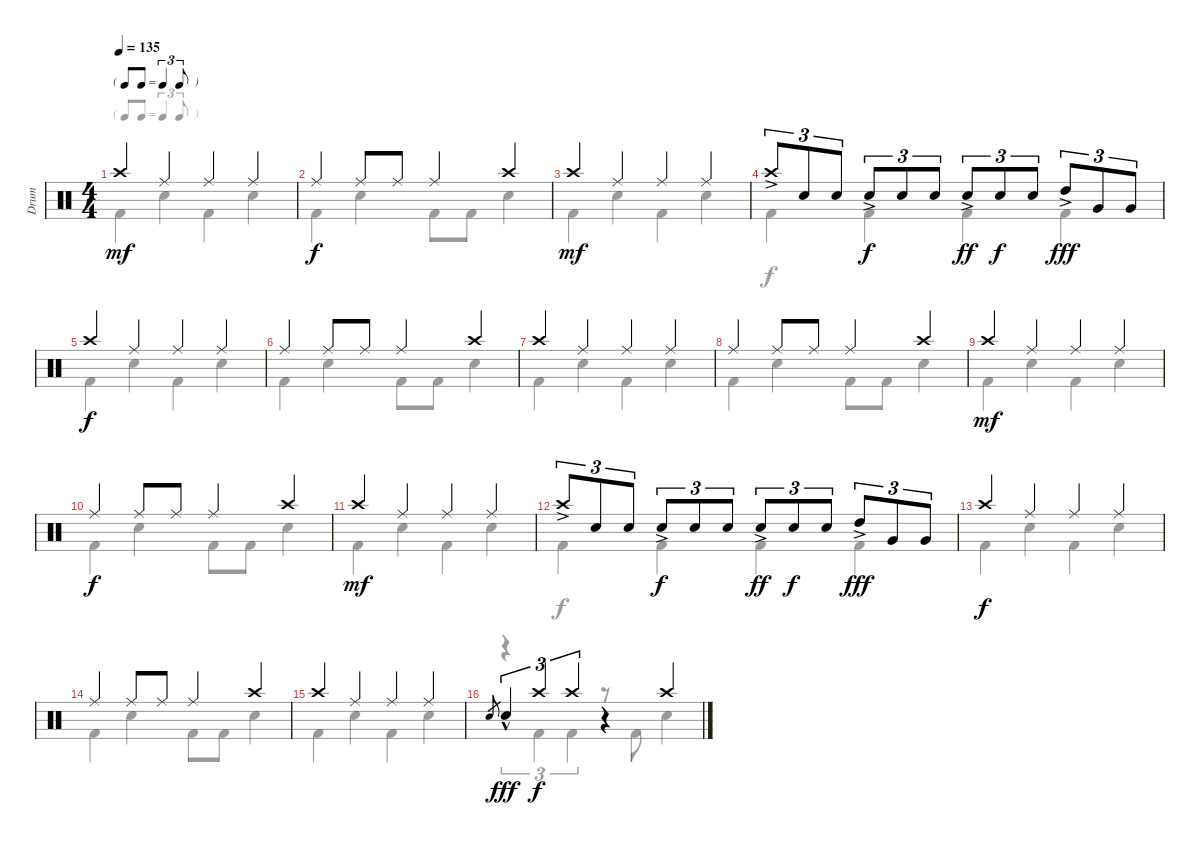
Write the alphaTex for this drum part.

\track ("Drum" "Drum") {instrument percussion}
\staff {score}
\articulation defaults
\voice
\ts (4 4)
\tf triplet8th
\tempo 135
\clef neutral
\ks c "Crash high (hit)".4{dy mf} "Ride (middle)".4 "Ride (middle)".4 "Ride (middle)".4
|
"Ride (middle)".4{dy f} "Ride (middle)".8 "Ride (middle)".8 "Ride (middle)".4 "Crash high (hit)".4 |
"Crash high (hit)".4{dy mf} "Ride (middle)".4 "Ride (middle)".4 "Ride (middle)".4 |
"Crash high (hit)"{ac}.8{tu (3 2)} "Snare (hit) 2".8{tu (3 2)} "Snare (hit) 2".8{tu (3 2)} "Snare (hit) 2"{ac}.8{tu (3 2) dy f} "Snare (hit) 2".8{tu (3 2)} "Snare (hit) 2".8{tu (3 2)} "Snare (hit) 2"{ac}.8{tu (3 2) dy ff} "Snare (hit) 2".8{tu (3 2) dy f} "Snare (hit) 2".8{tu (3 2)} "High Tom (hit)"{ac}.8{tu (3 2) dy fff} "Very Low Tom (hit)".8{tu (3 2)} "Very Low Tom (hit)".8{tu (3 2)} |
"Crash high (hit)".4{dy f} "Ride (middle)".4 "Ride (middle)".4 "Ride (middle)".4 |
"Ride (middle)".4 "Ride (middle)".8 "Ride (middle)".8 "Ride (middle)".4 "Crash high (hit)".4 |
"Crash high (hit)".4 "Ride (middle)".4 "Ride (middle)".4 "Ride (middle)".4 |
"Ride (middle)".4 "Ride (middle)".8 "Ride (middle)".8 "Ride (middle)".4 "Crash high (hit)".4 |
"Crash high (hit)".4{dy mf} "Ride (middle)".4 "Ride (middle)".4 "Ride (middle)".4 |
"Ride (middle)".4{dy f} "Ride (middle)".8 "Ride (middle)".8 "Ride (middle)".4 "Crash high (hit)".4 |
"Crash high (hit)".4{dy mf} "Ride (middle)".4 "Ride (middle)".4 "Ride (middle)".4 |
"Crash high (hit)"{ac}.8{tu (3 2)} "Snare (hit) 2".8{tu (3 2)} "Snare (hit) 2".8{tu (3 2)} "Snare (hit) 2"{ac}.8{tu (3 2) dy f} "Snare (hit) 2".8{tu (3 2)} "Snare (hit) 2".8{tu (3 2)} "Snare (hit) 2"{ac}.8{tu (3 2) dy ff} "Snare (hit) 2".8{tu (3 2) dy f} "Snare (hit) 2".8{tu (3 2)} "High Tom (hit)"{ac}.8{tu (3 2) dy fff} "Very Low Tom (hit)".8{tu (3 2)} "Very Low Tom (hit)".8{tu (3 2)} |
"Crash high (hit)".4{dy f} "Ride (middle)".4 "Ride (middle)".4 "Ride (middle)".4 |
"Ride (middle)".4 "Ride (middle)".8 "Ride (middle)".8 "Ride (middle)".4 "Crash high (hit)".4 |
"Crash high (hit)".4 "Ride (middle)".4 "Ride (middle)".4 "Ride (middle)".4 |
"Snare (hit) 2".8{gr} "Snare (hit) 2"{hac}.4{tu (3 2) dy fff} "Crash high (hit)".4{tu (3 2) dy f} "Crash high (hit)".4{tu (3 2)} r.4 "Crash high (hit)".4
\voice
\clef neutral
\ottava regular
\simile none
\ks c "Kick (hit) 2".4{dy mf} "Snare (hit) 2".4 "Kick (hit) 2".4 "Snare (hit) 2".4
|
"Kick (hit) 2".4{dy f} "Snare (hit) 2".4 "Kick (hit) 2".8 "Kick (hit) 2".8 "Snare (hit) 2".4 |
"Kick (hit) 2".4{dy mf} "Snare (hit) 2".4 "Kick (hit) 2".4 "Snare (hit) 2".4 |
"Kick (hit) 2".4{dy f} "Kick (hit) 2".4 "Kick (hit) 2".4 "Kick (hit) 2".4 |
"Kick (hit) 2".4 "Snare (hit) 2".4 "Kick (hit) 2".4 "Snare (hit) 2".4 |
"Kick (hit) 2".4 "Snare (hit) 2".4 "Kick (hit) 2".8 "Kick (hit) 2".8 "Snare (hit) 2".4 |
"Kick (hit) 2".4 "Snare (hit) 2".4 "Kick (hit) 2".4 "Snare (hit) 2".4 |
"Kick (hit) 2".4 "Snare (hit) 2".4 "Kick (hit) 2".8 "Kick (hit) 2".8 "Snare (hit) 2".4 |
"Kick (hit) 2".4{dy mf} "Snare (hit) 2".4 "Kick (hit) 2".4 "Snare (hit) 2".4 |
"Kick (hit) 2".4{dy f} "Snare (hit) 2".4 "Kick (hit) 2".8 "Kick (hit) 2".8 "Snare (hit) 2".4 |
"Kick (hit) 2".4{dy mf} "Snare (hit) 2".4 "Kick (hit) 2".4 "Snare (hit) 2".4 |
"Kick (hit) 2".4{dy f} "Kick (hit) 2".4 "Kick (hit) 2".4 "Kick (hit) 2".4 |
"Kick (hit) 2".4 "Snare (hit) 2".4 "Kick (hit) 2".4 "Snare (hit) 2".4 |
"Kick (hit) 2".4 "Snare (hit) 2".4 "Kick (hit) 2".8 "Kick (hit) 2".8 "Snare (hit) 2".4 |
"Kick (hit) 2".4 "Snare (hit) 2".4 "Kick (hit) 2".4 "Snare (hit) 2".4 |
r.4{tu (3 2)} "Kick (hit) 2".4{tu (3 2)} "Kick (hit) 2".4{tu (3 2)} r.8 "Kick (hit) 2".8 "Snare (hit) 2".4
